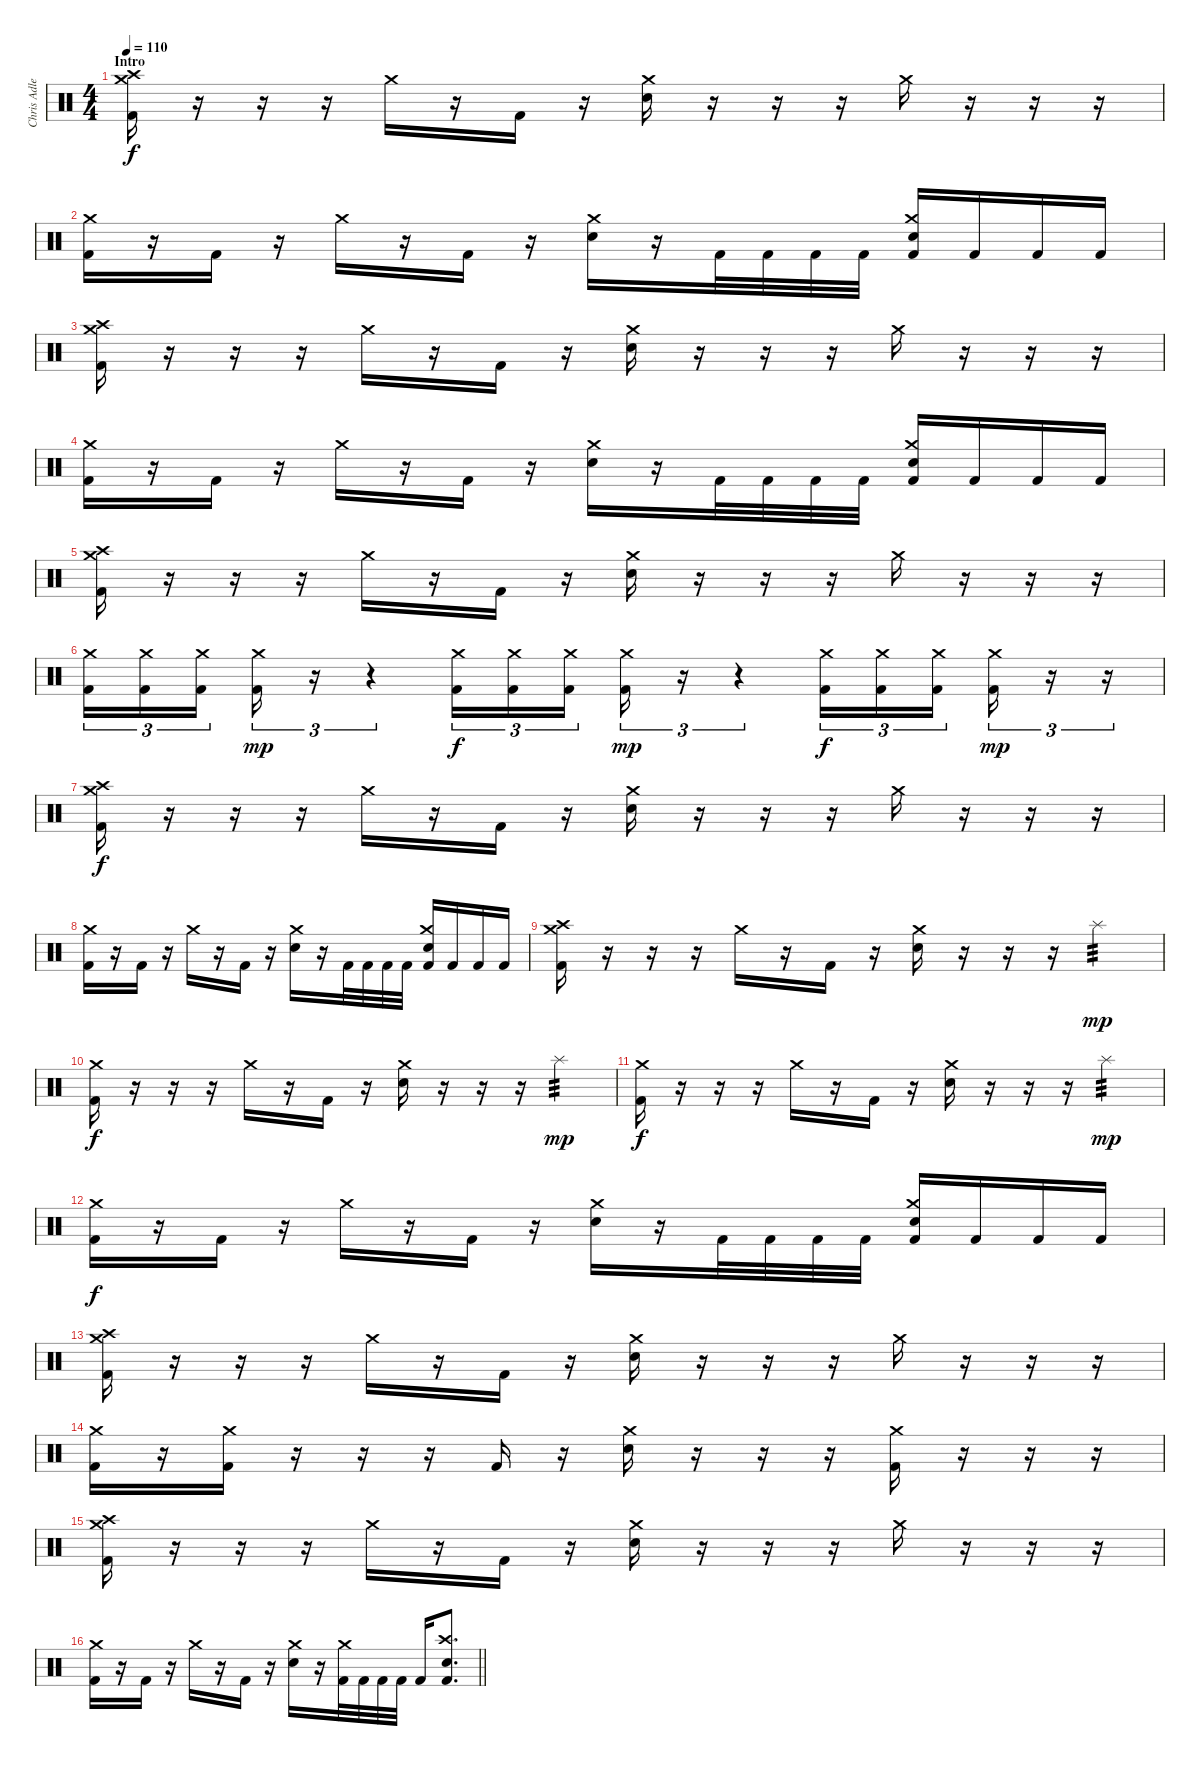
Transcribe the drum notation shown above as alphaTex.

\track ("Chris Adler" "Chris Adle") {instrument percussion}
\staff {score}
\articulation defaults
\ts (4 4)
\section ("" "Intro")
\tempo 110
\clef neutral
\ks c
("Kick (hit) 2" "Crash high (hit)" "Crash medium (hit)").16{dy f} r.16 r.16 r.16 "Crash medium (hit)".16 r.16 "Kick (hit) 2".16 r.16 ("Electric Snare (hit)" "Crash medium (hit)").16 r.16 r.16 r.16 "Crash medium (hit)".16 r.16 r.16 r.16 |
("Kick (hit) 2" "Crash medium (hit)").16 r.16 "Kick (hit) 2".16 r.16 "Crash medium (hit)".16 r.16 "Kick (hit) 2".16 r.16 ("Electric Snare (hit)" "Crash medium (hit)").16 r.16 "Kick (hit) 2".32 "Kick (hit) 2".32 "Kick (hit) 2".32 "Kick (hit) 2".32 ("Kick (hit) 2" "Electric Snare (hit)" "Crash medium (hit)").16 "Kick (hit) 2".16 "Kick (hit) 2".16 "Kick (hit) 2".16 |
("Kick (hit) 2" "Crash high (hit)" "Crash medium (hit)").16 r.16 r.16 r.16 "Crash medium (hit)".16 r.16 "Kick (hit) 2".16 r.16 ("Electric Snare (hit)" "Crash medium (hit)").16 r.16 r.16 r.16 "Crash medium (hit)".16 r.16 r.16 r.16 |
("Kick (hit) 2" "Crash medium (hit)").16 r.16 "Kick (hit) 2".16 r.16 "Crash medium (hit)".16 r.16 "Kick (hit) 2".16 r.16 ("Electric Snare (hit)" "Crash medium (hit)").16 r.16 "Kick (hit) 2".32 "Kick (hit) 2".32 "Kick (hit) 2".32 "Kick (hit) 2".32 ("Kick (hit) 2" "Electric Snare (hit)" "Crash medium (hit)").16 "Kick (hit) 2".16 "Kick (hit) 2".16 "Kick (hit) 2".16 |
("Kick (hit) 2" "Crash high (hit)" "Crash medium (hit)").16 r.16 r.16 r.16 "Crash medium (hit)".16 r.16 "Kick (hit) 2".16 r.16 ("Electric Snare (hit)" "Crash medium (hit)").16 r.16 r.16 r.16 "Crash medium (hit)".16 r.16 r.16 r.16 |
("Kick (hit) 2" "Crash medium (hit)").16{tu (3 2)} ("Kick (hit) 2" "Crash medium (hit)").16{tu (3 2)} ("Kick (hit) 2" "Crash medium (hit)").16{tu (3 2) beam splitsecondary} ("Kick (hit) 2" "Crash medium (hit)").16{tu (3 2) dy mp} r.16{tu (3 2)} r.4{tu (3 2)} ("Kick (hit) 2" "Crash medium (hit)").16{tu (3 2) dy f} ("Kick (hit) 2" "Crash medium (hit)").16{tu (3 2)} ("Kick (hit) 2" "Crash medium (hit)").16{tu (3 2)} ("Kick (hit) 2" "Crash medium (hit)").16{tu (3 2) dy mp} r.16{tu (3 2)} r.4{tu (3 2)} ("Kick (hit) 2" "Crash medium (hit)").16{tu (3 2) dy f} ("Kick (hit) 2" "Crash medium (hit)").16{tu (3 2)} ("Kick (hit) 2" "Crash medium (hit)").16{tu (3 2) beam splitsecondary} ("Kick (hit) 2" "Crash medium (hit)").16{tu (3 2) dy mp} r.16{tu (3 2)} r.16{tu (3 2)} |
("Kick (hit) 2" "Crash high (hit)" "Crash medium (hit)").16{dy f} r.16 r.16 r.16 "Crash medium (hit)".16 r.16 "Kick (hit) 2".16 r.16 ("Electric Snare (hit)" "Crash medium (hit)").16 r.16 r.16 r.16 "Crash medium (hit)".16 r.16 r.16 r.16 |
("Kick (hit) 2" "Crash medium (hit)").16 r.16 "Kick (hit) 2".16 r.16 "Crash medium (hit)".16 r.16 "Kick (hit) 2".16 r.16 ("Electric Snare (hit)" "Crash medium (hit)").16 r.16 "Kick (hit) 2".32 "Kick (hit) 2".32 "Kick (hit) 2".32 "Kick (hit) 2".32 ("Kick (hit) 2" "Electric Snare (hit)" "Crash medium (hit)").16 "Kick (hit) 2".16 "Kick (hit) 2".16 "Kick (hit) 2".16 |
("Kick (hit) 2" "Crash high (hit)" "Crash medium (hit)").16 r.16 r.16 r.16 "Crash medium (hit)".16 r.16 "Kick (hit) 2".16 r.16 ("Electric Snare (hit)" "Crash medium (hit)").16 r.16 r.16 r.16 "Splash (hit)".4{tp 3 dy mp} |
("Kick (hit) 2" "Crash medium (hit)").16{dy f} r.16 r.16 r.16 "Crash medium (hit)".16 r.16 "Kick (hit) 2".16 r.16 ("Electric Snare (hit)" "Crash medium (hit)").16 r.16 r.16 r.16 "Splash (hit)".4{tp 3 dy mp} |
("Kick (hit) 2" "Crash medium (hit)").16{dy f} r.16 r.16 r.16 "Crash medium (hit)".16 r.16 "Kick (hit) 2".16 r.16 ("Electric Snare (hit)" "Crash medium (hit)").16 r.16 r.16 r.16 "Splash (hit)".4{tp 3 dy mp} |
("Kick (hit) 2" "Crash medium (hit)").16{dy f} r.16 "Kick (hit) 2".16 r.16 "Crash medium (hit)".16 r.16 "Kick (hit) 2".16 r.16 ("Electric Snare (hit)" "Crash medium (hit)").16 r.16 "Kick (hit) 2".32 "Kick (hit) 2".32 "Kick (hit) 2".32 "Kick (hit) 2".32 ("Kick (hit) 2" "Electric Snare (hit)" "Crash medium (hit)").16 "Kick (hit) 2".16 "Kick (hit) 2".16 "Kick (hit) 2".16 |
("Kick (hit) 2" "Crash high (hit)" "Crash medium (hit)").16 r.16 r.16 r.16 "Crash medium (hit)".16 r.16 "Kick (hit) 2".16 r.16 ("Electric Snare (hit)" "Crash medium (hit)").16 r.16 r.16 r.16 "Crash medium (hit)".16 r.16 r.16 r.16 |
("Kick (hit) 2" "Crash medium (hit)").16 r.16 ("Kick (hit) 2" "Crash medium (hit)").16 r.16 r.16 r.16 "Kick (hit) 2".16 r.16 ("Electric Snare (hit)" "Crash medium (hit)").16 r.16 r.16 r.16 ("Kick (hit) 2" "Crash medium (hit)").16 r.16 r.16 r.16 |
("Kick (hit) 2" "Crash high (hit)" "Crash medium (hit)").16 r.16 r.16 r.16 "Crash medium (hit)".16 r.16 "Kick (hit) 2".16 r.16 ("Electric Snare (hit)" "Crash medium (hit)").16 r.16 r.16 r.16 "Crash medium (hit)".16 r.16 r.16 r.16 |
\barLineRight lightlight
("Kick (hit) 2" "Crash medium (hit)").16 r.16 "Kick (hit) 2".16 r.16 "Crash medium (hit)".16 r.16 "Kick (hit) 2".16 r.16 ("Electric Snare (hit)" "Crash medium (hit)").16 r.16 ("Kick (hit) 2" "Crash medium (hit)").32 "Kick (hit) 2".32 "Kick (hit) 2".32 "Kick (hit) 2".32 "Kick (hit) 2".16 ("Kick (hit) 2" "Electric Snare (hit)" "Crash high (hit)").8{d}
